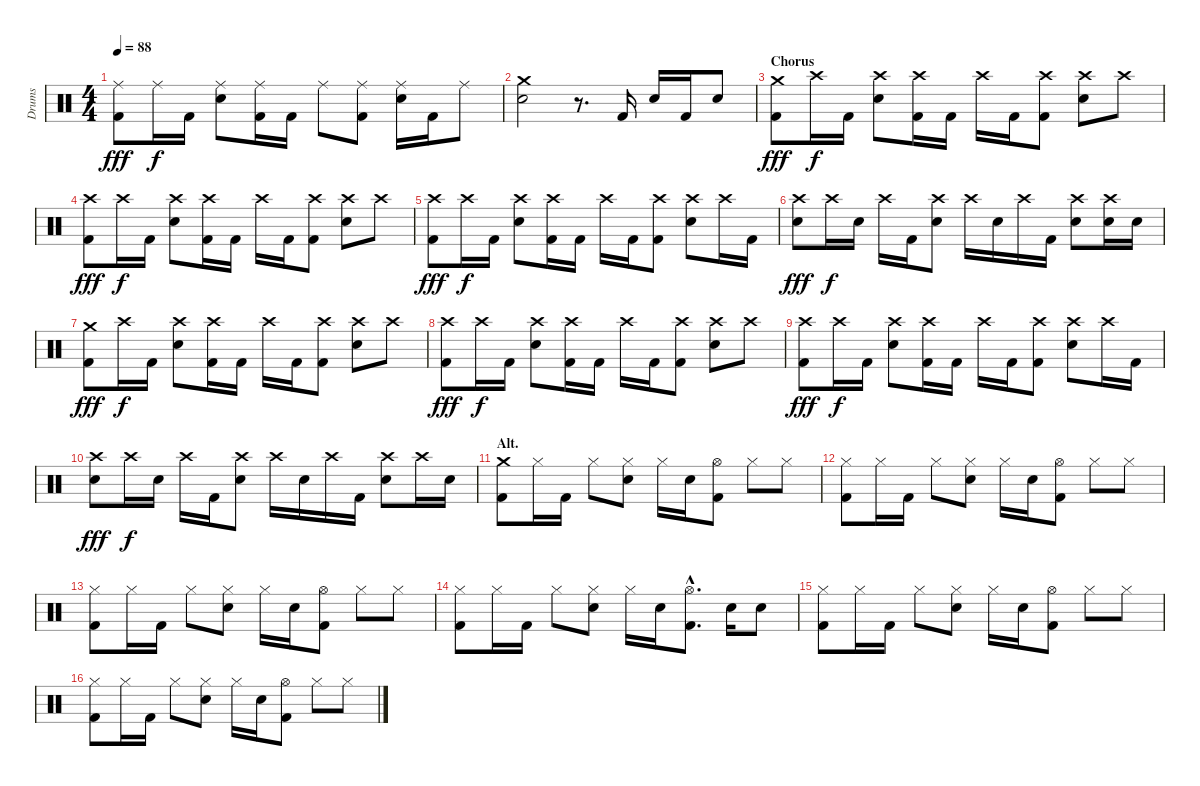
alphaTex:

\track ("Drums" "Drums") {instrument percussion}
\staff {score}
\articulation defaults
\ts (4 4)
\tempo 88
\clef neutral
\ks c
("Ride (middle)" "Kick (hit) 2").8{dy fff} "Ride (middle)".16{dy f} "Kick (hit) 2".16 ("Ride (middle)" "Electric Snare (hit)").8 ("Ride (middle)" "Kick (hit) 2").16 "Kick (hit) 2".16 "Ride (middle)".8 ("Ride (middle)" "Kick (hit) 2").8 ("Ride (middle)" "Electric Snare (hit)").16 "Kick (hit) 2".16 "Ride (middle)".8 |
("Crash medium (hit)" "Electric Snare (hit)").2 r.8{d} "Kick (hit) 2".16 "Electric Snare (hit)".16 "Kick (hit) 2".16 "Electric Snare (hit)".8 |
\section ("" "Chorus")
("Crash medium (hit)" "Kick (hit) 2").8{dy fff} "Crash high (hit)".16{dy f} "Kick (hit) 2".16 ("Crash high (hit)" "Electric Snare (hit)").8 ("Crash high (hit)" "Kick (hit) 2").16 "Kick (hit) 2".16 "Crash high (hit)".16 "Kick (hit) 2".16 ("Crash high (hit)" "Kick (hit) 2").8 ("Crash high (hit)" "Electric Snare (hit)").8 "Crash high (hit)".8 |
("Crash high (hit)" "Kick (hit) 2").8{dy fff} "Crash high (hit)".16{dy f} "Kick (hit) 2".16 ("Crash high (hit)" "Electric Snare (hit)").8 ("Crash high (hit)" "Kick (hit) 2").16 "Kick (hit) 2".16 "Crash high (hit)".16 "Kick (hit) 2".16 ("Crash high (hit)" "Kick (hit) 2").8 ("Crash high (hit)" "Electric Snare (hit)").8 "Crash high (hit)".8 |
("Crash high (hit)" "Kick (hit) 2").8{dy fff} "Crash high (hit)".16{dy f} "Kick (hit) 2".16 ("Crash high (hit)" "Electric Snare (hit)").8 ("Crash high (hit)" "Kick (hit) 2").16 "Kick (hit) 2".16 "Crash high (hit)".16 "Kick (hit) 2".16 ("Crash high (hit)" "Kick (hit) 2").8 ("Crash high (hit)" "Electric Snare (hit)").8 "Crash high (hit)".16 "Kick (hit) 2".16 |
("Crash high (hit)" "Electric Snare (hit)").8{dy fff} "Crash high (hit)".16{dy f} "Electric Snare (hit)".16 "Crash high (hit)".16 "Kick (hit) 2".16 ("Crash high (hit)" "Electric Snare (hit)").8 "Crash high (hit)".16 "Electric Snare (hit)".16 "Crash high (hit)".16 "Kick (hit) 2".16 ("Crash high (hit)" "Electric Snare (hit)").8 ("Crash high (hit)" "Electric Snare (hit)").16 "Electric Snare (hit)".16 |
("Crash medium (hit)" "Kick (hit) 2").8{dy fff} "Crash high (hit)".16{dy f} "Kick (hit) 2".16 ("Crash high (hit)" "Electric Snare (hit)").8 ("Crash high (hit)" "Kick (hit) 2").16 "Kick (hit) 2".16 "Crash high (hit)".16 "Kick (hit) 2".16 ("Crash high (hit)" "Kick (hit) 2").8 ("Crash high (hit)" "Electric Snare (hit)").8 "Crash high (hit)".8 |
("Crash high (hit)" "Kick (hit) 2").8{dy fff} "Crash high (hit)".16{dy f} "Kick (hit) 2".16 ("Crash high (hit)" "Electric Snare (hit)").8 ("Crash high (hit)" "Kick (hit) 2").16 "Kick (hit) 2".16 "Crash high (hit)".16 "Kick (hit) 2".16 ("Crash high (hit)" "Kick (hit) 2").8 ("Crash high (hit)" "Electric Snare (hit)").8 "Crash high (hit)".8 |
("Crash high (hit)" "Kick (hit) 2").8{dy fff} "Crash high (hit)".16{dy f} "Kick (hit) 2".16 ("Crash high (hit)" "Electric Snare (hit)").8 ("Crash high (hit)" "Kick (hit) 2").16 "Kick (hit) 2".16 "Crash high (hit)".16 "Kick (hit) 2".16 ("Crash high (hit)" "Kick (hit) 2").8 ("Crash high (hit)" "Electric Snare (hit)").8 "Crash high (hit)".16 "Kick (hit) 2".16 |
("Crash high (hit)" "Electric Snare (hit)").8{dy fff} "Crash high (hit)".16{dy f} "Electric Snare (hit)".16 "Crash high (hit)".16 "Kick (hit) 2".16 ("Crash high (hit)" "Electric Snare (hit)").8 "Crash high (hit)".16 "Electric Snare (hit)".16 "Crash high (hit)".16 "Kick (hit) 2".16 ("Crash high (hit)" "Electric Snare (hit)").8 "Crash high (hit)".16 "Electric Snare (hit)".16 |
\section ("" "Alt.")
("Crash medium (hit)" "Kick (hit) 2").8 "Hi-Hat (closed)".16 "Kick (hit) 2".16 "Hi-Hat (closed)".8 ("Hi-Hat (closed)" "Electric Snare (hit)").8 "Hi-Hat (closed)".16 "Electric Snare (hit)".16 ("Hi-Hat (open)" "Kick (hit) 2").8 "Hi-Hat (closed)".8 "Hi-Hat (closed)".8 |
("Hi-Hat (closed)" "Kick (hit) 2").8 "Hi-Hat (closed)".16 "Kick (hit) 2".16 "Hi-Hat (closed)".8 ("Hi-Hat (closed)" "Electric Snare (hit)").8 "Hi-Hat (closed)".16 "Electric Snare (hit)".16 ("Hi-Hat (open)" "Kick (hit) 2").8 "Hi-Hat (closed)".8 "Hi-Hat (closed)".8 |
("Hi-Hat (closed)" "Kick (hit) 2").8 "Hi-Hat (closed)".16 "Kick (hit) 2".16 "Hi-Hat (closed)".8 ("Hi-Hat (closed)" "Electric Snare (hit)").8 "Hi-Hat (closed)".16 "Electric Snare (hit)".16 ("Hi-Hat (open)" "Kick (hit) 2").8 "Hi-Hat (closed)".8 "Hi-Hat (closed)".8 |
("Hi-Hat (closed)" "Kick (hit) 2").8 "Hi-Hat (closed)".16 "Kick (hit) 2".16 "Hi-Hat (closed)".8 ("Hi-Hat (closed)" "Electric Snare (hit)").8 "Hi-Hat (closed)".16 "Electric Snare (hit)".16 ("Hi-Hat (open)"{hac} "Kick (hit) 2"{hac}).8{d} "Electric Snare (hit)".16 "Electric Snare (hit)".8 |
("Hi-Hat (closed)" "Kick (hit) 2").8 "Hi-Hat (closed)".16 "Kick (hit) 2".16 "Hi-Hat (closed)".8 ("Hi-Hat (closed)" "Electric Snare (hit)").8 "Hi-Hat (closed)".16 "Electric Snare (hit)".16 ("Hi-Hat (open)" "Kick (hit) 2").8 "Hi-Hat (closed)".8 "Hi-Hat (closed)".8 |
("Hi-Hat (closed)" "Kick (hit) 2").8 "Hi-Hat (closed)".16 "Kick (hit) 2".16 "Hi-Hat (closed)".8 ("Hi-Hat (closed)" "Electric Snare (hit)").8 "Hi-Hat (closed)".16 "Electric Snare (hit)".16 ("Hi-Hat (open)" "Kick (hit) 2").8 "Hi-Hat (closed)".8 "Hi-Hat (closed)".8
